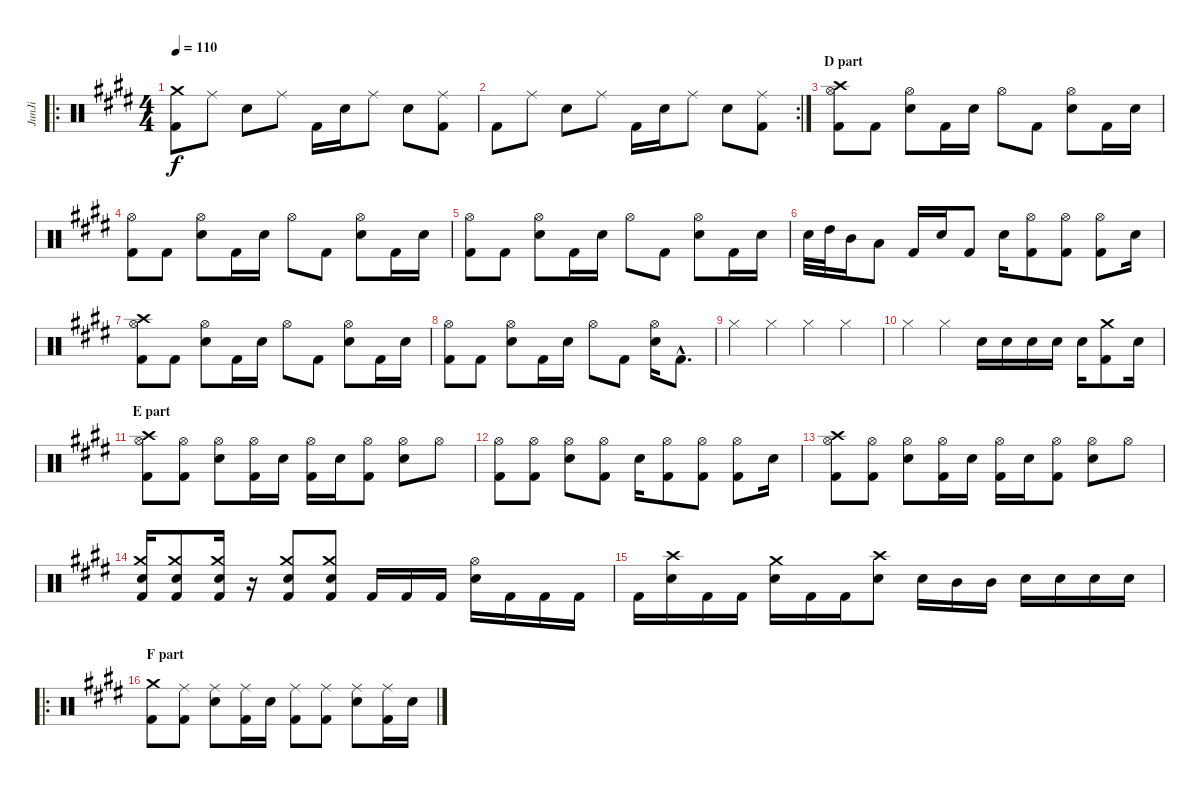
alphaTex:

\track ("JunJi" "JunJi") {instrument percussion}
\staff {score}
\articulation defaults
\ro
\ts (4 4)
\tempo 110
\clef neutral
\ks c#minor
("Kick (hit) 2" "Crash medium (hit)").8{dy f} "Ride (middle)".8 "Snare (hit) 2".8 "Ride (middle)".8 "Kick (hit) 2".16 "Snare (hit) 2".16 "Ride (middle)".8 "Snare (hit) 2".8 ("Ride (middle)" "Kick (hit) 2").8 |
\rc 2 "Kick (hit) 2".8 "Ride (middle)".8 "Snare (hit) 2".8 "Ride (middle)".8 "Kick (hit) 2".16 "Snare (hit) 2".16 "Ride (middle)".8 "Snare (hit) 2".8
("Ride (middle)" "Kick (hit) 2").8 |
\section ("" "D part")
("Hi-Hat (open)" "Kick (hit) 2" "Crash high (hit)").8 "Kick (hit) 2".8 ("Hi-Hat (open)" "Snare (hit) 2").8 "Kick (hit) 2".16 "Snare (hit) 2".16 "Hi-Hat (open)".8 "Kick (hit) 2".8 ("Hi-Hat (open)" "Snare (hit) 2").8 "Kick (hit) 2".16 "Snare (hit) 2".16 |
("Hi-Hat (open)" "Kick (hit) 2").8 "Kick (hit) 2".8 ("Hi-Hat (open)" "Snare (hit) 2").8 "Kick (hit) 2".16 "Snare (hit) 2".16 "Hi-Hat (open)".8 "Kick (hit) 2".8 ("Hi-Hat (open)" "Snare (hit) 2").8 "Kick (hit) 2".16 "Snare (hit) 2".16 |
("Hi-Hat (open)" "Kick (hit) 2").8 "Kick (hit) 2".8 ("Hi-Hat (open)" "Snare (hit) 2").8 "Kick (hit) 2".16 "Snare (hit) 2".16 "Hi-Hat (open)".8 "Kick (hit) 2".8 ("Hi-Hat (open)" "Snare (hit) 2").8 "Kick (hit) 2".16 "Snare (hit) 2".16 |
"Snare (hit) 2".32 "High Tom (hit)".32 "Mid Tom (hit)".16 "Low Tom (hit)".8 "Kick (hit) 2".16 "Snare (hit) 2".16 "Kick (hit) 2".8 "Snare (hit) 2".16 ("Hi-Hat (open)" "Kick (hit) 2").8 ("Hi-Hat (open)" "Kick (hit) 2").8 ("Hi-Hat (open)" "Kick (hit) 2").8 "Snare (hit) 2".16 |
("Hi-Hat (open)" "Kick (hit) 2" "Crash high (hit)").8 "Kick (hit) 2".8 ("Hi-Hat (open)" "Snare (hit) 2").8 "Kick (hit) 2".16 "Snare (hit) 2".16 "Hi-Hat (open)".8 "Kick (hit) 2".8 ("Hi-Hat (open)" "Snare (hit) 2").8 "Kick (hit) 2".16 "Snare (hit) 2".16 |
("Hi-Hat (open)" "Kick (hit) 2").8 "Kick (hit) 2".8 ("Hi-Hat (open)" "Snare (hit) 2").8 "Kick (hit) 2".16 "Snare (hit) 2".16 "Hi-Hat (open)".8 "Kick (hit) 2".8 ("Hi-Hat (open)" "Snare (hit) 2").16 "Kick (hit) 2"{hac}.8{d} |
"Hi-Hat (closed)".4 "Hi-Hat (closed)".4 "Hi-Hat (closed)".4 "Hi-Hat (closed)".4 |
"Hi-Hat (closed)".4 "Hi-Hat (closed)".4 "Snare (hit) 2".16 "Snare (hit) 2".16 "Snare (hit) 2".16 "Snare (hit) 2".16 "Snare (hit) 2".16 ("Crash medium (hit)" "Kick (hit) 2").8 "Snare (hit) 2".16 |
\section ("" "E part")
("Hi-Hat (open)" "Kick (hit) 2" "Crash high (hit)").8 ("Hi-Hat (open)" "Kick (hit) 2").8 ("Hi-Hat (open)" "Snare (hit) 2").8 ("Hi-Hat (open)" "Kick (hit) 2").16 "Snare (hit) 2".16 ("Hi-Hat (open)" "Kick (hit) 2").16 "Snare (hit) 2".16 ("Hi-Hat (open)" "Kick (hit) 2").8 ("Hi-Hat (open)" "Snare (hit) 2").8 "Hi-Hat (open)".8 |
("Hi-Hat (open)" "Kick (hit) 2").8 ("Hi-Hat (open)" "Kick (hit) 2").8 ("Hi-Hat (open)" "Snare (hit) 2").8 ("Hi-Hat (open)" "Kick (hit) 2").8 "Snare (hit) 2".16 ("Hi-Hat (open)" "Kick (hit) 2").8 ("Hi-Hat (open)" "Kick (hit) 2").8 ("Hi-Hat (open)" "Kick (hit) 2").8 "Snare (hit) 2".16 |
("Hi-Hat (open)" "Kick (hit) 2" "Crash high (hit)").8 ("Hi-Hat (open)" "Kick (hit) 2").8 ("Hi-Hat (open)" "Snare (hit) 2").8 ("Hi-Hat (open)" "Kick (hit) 2").16 "Snare (hit) 2".16 ("Hi-Hat (open)" "Kick (hit) 2").16 "Snare (hit) 2".16 ("Hi-Hat (open)" "Kick (hit) 2").8 ("Hi-Hat (open)" "Snare (hit) 2").8 "Hi-Hat (open)".8 |
("Crash medium (hit)" "Kick (hit) 2" "Snare (hit) 2").16 ("Crash medium (hit)" "Kick (hit) 2" "Snare (hit) 2").8 ("Crash medium (hit)" "Kick (hit) 2" "Snare (hit) 2").16 r.16 ("Crash medium (hit)" "Kick (hit) 2" "Snare (hit) 2").8 ("Crash medium (hit)" "Kick (hit) 2" "Snare (hit) 2").8 "Kick (hit) 2".16 "Kick (hit) 2".16 "Kick (hit) 2".16 ("Hi-Hat (open)" "Snare (hit) 2").16 "Kick (hit) 2".16 "Kick (hit) 2".16 "Kick (hit) 2".16 |
"Kick (hit) 2".16 ("Crash high (hit)" "Snare (hit) 2").16 "Kick (hit) 2".16 "Kick (hit) 2".16 ("Crash medium (hit)" "Snare (hit) 2").16 "Kick (hit) 2".16 "Kick (hit) 2".16 ("Crash high (hit)" "Snare (hit) 2").8 "Snare (hit) 2".16 "Mid Tom (hit)".16 "Mid Tom (hit)".16 "Snare (hit) 2".16 "Snare (hit) 2".16 "Snare (hit) 2".16 "Snare (hit) 2".16 |
\ro
\section ("" "F part")
("Crash medium (hit)" "Kick (hit) 2").8 ("Ride (middle)" "Kick (hit) 2").8 ("Ride (middle)" "Snare (hit) 2").8 ("Ride (middle)" "Kick (hit) 2").16 "Snare (hit) 2".16 ("Ride (middle)" "Kick (hit) 2").8 ("Ride (middle)" "Kick (hit) 2").8 ("Ride (middle)" "Snare (hit) 2").8 ("Ride (middle)" "Kick (hit) 2").16 "Snare (hit) 2".16
